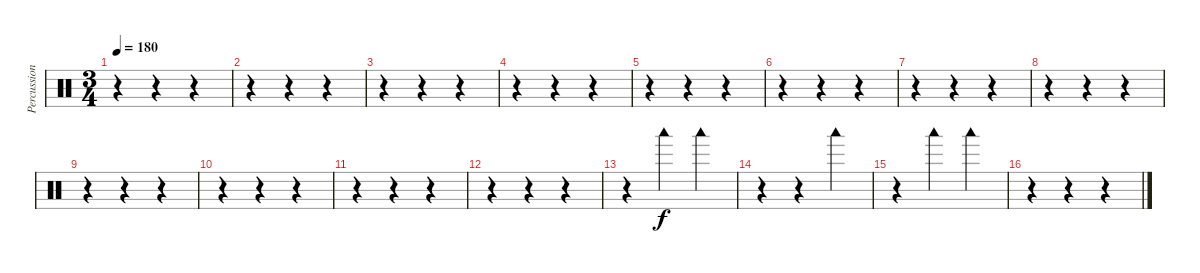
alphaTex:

\track ("Percussions" "Percussion") {instrument percussion}
\staff {score}
\articulation defaults
\ts (3 4)
\tempo 180
\clef neutral
\ks c
r.4{dy f} r.4 r.4 |
r.4 r.4 r.4 |
r.4 r.4 r.4 |
r.4 r.4 r.4 |
r.4 r.4 r.4 |
r.4 r.4 r.4 |
r.4 r.4 r.4 |
r.4 r.4 r.4 |
r.4 r.4 r.4 |
r.4 r.4 r.4 |
r.4 r.4 r.4 |
r.4 r.4 r.4 |
r.4 "Woodblock low (hit)".4 "Woodblock low (hit)".4 |
r.4 r.4 "Woodblock low (hit)".4 |
r.4 "Woodblock low (hit)".4 "Woodblock low (hit)".4 |
r.4 r.4 r.4
